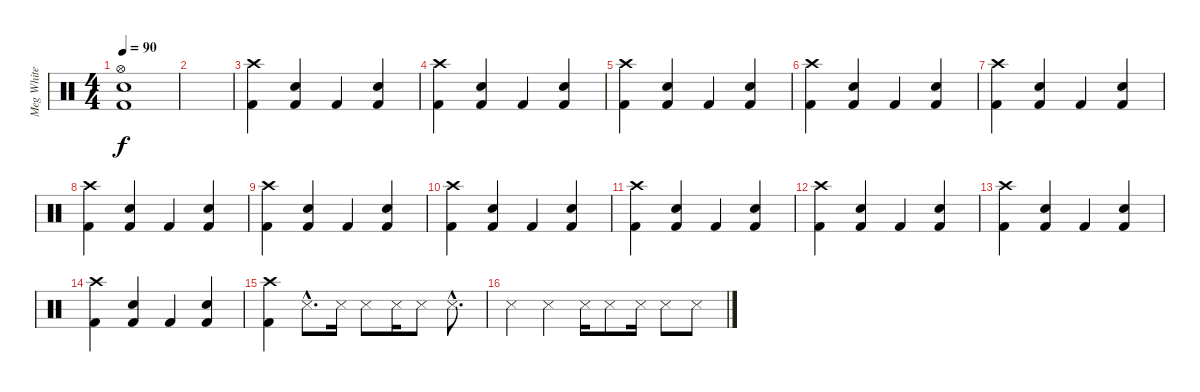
\track ("Meg White" "Meg White") {instrument percussion}
\staff {score}
\articulation defaults
\ts (4 4)
\tempo 90
\clef neutral
\ks c
("Hi-Hat (open)" "Kick (hit) 2" "Snare (hit) 2").1{dy f} |
|
("Crash high (hit)" "Kick (hit) 2").4 ("Kick (hit) 2" "Electric Snare (hit)").4 "Kick (hit) 2".4 ("Kick (hit) 2" "Electric Snare (hit)").4 |
("Crash high (hit)" "Kick (hit) 2").4 ("Kick (hit) 2" "Electric Snare (hit)").4 "Kick (hit) 2".4 ("Kick (hit) 2" "Electric Snare (hit)").4 |
("Crash high (hit)" "Kick (hit) 2").4 ("Kick (hit) 2" "Electric Snare (hit)").4 "Kick (hit) 2".4 ("Kick (hit) 2" "Electric Snare (hit)").4 |
("Crash high (hit)" "Kick (hit) 2").4 ("Kick (hit) 2" "Electric Snare (hit)").4 "Kick (hit) 2".4 ("Kick (hit) 2" "Electric Snare (hit)").4 |
("Crash high (hit)" "Kick (hit) 2").4 ("Kick (hit) 2" "Electric Snare (hit)").4 "Kick (hit) 2".4 ("Kick (hit) 2" "Electric Snare (hit)").4 |
("Crash high (hit)" "Kick (hit) 2").4 ("Kick (hit) 2" "Electric Snare (hit)").4 "Kick (hit) 2".4 ("Kick (hit) 2" "Electric Snare (hit)").4 |
("Crash high (hit)" "Kick (hit) 2").4 ("Kick (hit) 2" "Electric Snare (hit)").4 "Kick (hit) 2".4 ("Kick (hit) 2" "Electric Snare (hit)").4 |
("Crash high (hit)" "Kick (hit) 2").4 ("Kick (hit) 2" "Electric Snare (hit)").4 "Kick (hit) 2".4 ("Kick (hit) 2" "Electric Snare (hit)").4 |
("Crash high (hit)" "Kick (hit) 2").4 ("Kick (hit) 2" "Electric Snare (hit)").4 "Kick (hit) 2".4 ("Kick (hit) 2" "Electric Snare (hit)").4 |
("Crash high (hit)" "Kick (hit) 2").4 ("Kick (hit) 2" "Electric Snare (hit)").4 "Kick (hit) 2".4 ("Kick (hit) 2" "Electric Snare (hit)").4 |
("Crash high (hit)" "Kick (hit) 2").4 ("Kick (hit) 2" "Electric Snare (hit)").4 "Kick (hit) 2".4 ("Kick (hit) 2" "Electric Snare (hit)").4 |
("Crash high (hit)" "Kick (hit) 2").4 ("Kick (hit) 2" "Electric Snare (hit)").4 "Kick (hit) 2".4 ("Kick (hit) 2" "Electric Snare (hit)").4 |
("Crash high (hit)" "Kick (hit) 2").4 "Snare (side stick) 3"{hac}.8{d} "Snare (side stick) 3".16 "Snare (side stick) 3".8 "Snare (side stick) 3".16 "Snare (side stick) 3".8 "Snare (side stick) 3"{hac}.8{d} |
"Snare (side stick) 3".4 "Snare (side stick) 3".4 "Snare (side stick) 3".16 "Snare (side stick) 3".8 "Snare (side stick) 3".16 "Snare (side stick) 3".8 "Snare (side stick) 3".8
